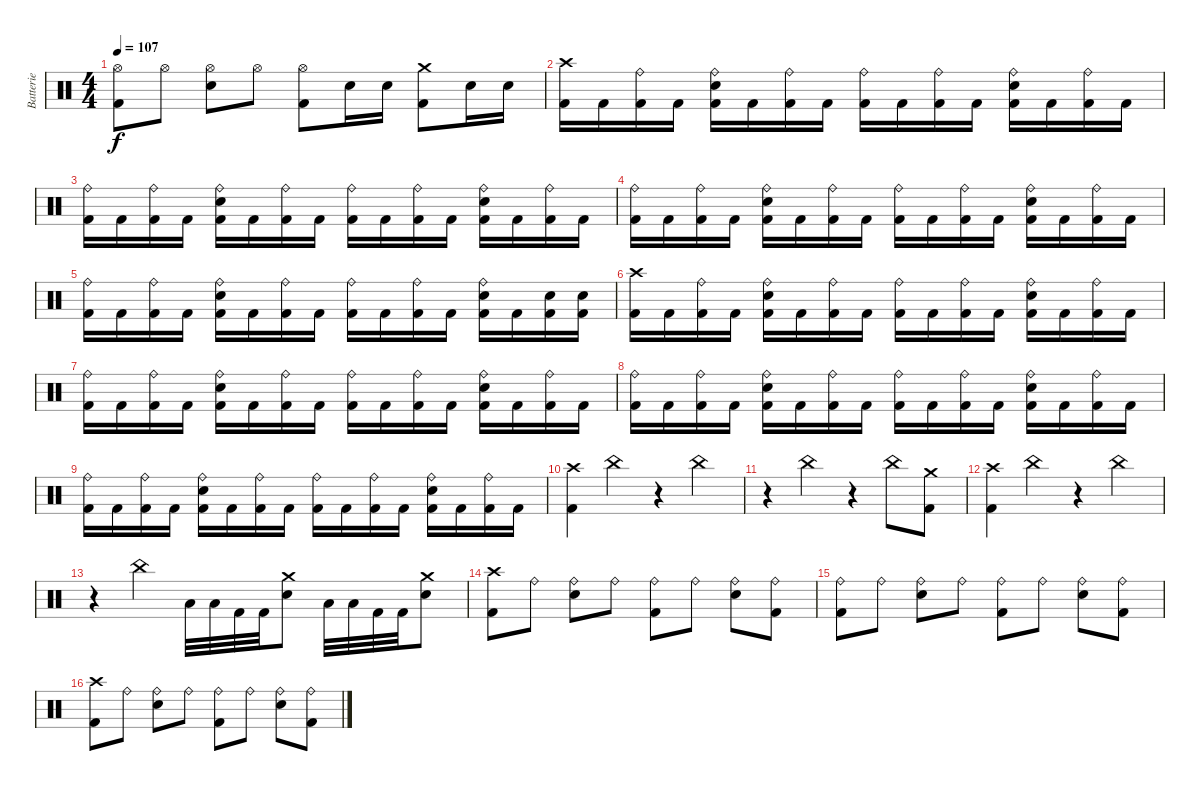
\track ("Batterie" "Batterie") {instrument percussion}
\staff {score}
\articulation defaults
\ts (4 4)
\tempo 107
\clef neutral
\ks c
("Hi-Hat (open)" "Kick (hit) 2").8{dy f} "Hi-Hat (open)".8 ("Hi-Hat (open)" "Electric Snare (hit)").8 "Hi-Hat (open)".8 ("Hi-Hat (open)" "Kick (hit) 2").8 "Electric Snare (hit)".16 "Electric Snare (hit)".16 ("Crash medium (hit)" "Kick (hit) 2").8 "Electric Snare (hit)".16 "Electric Snare (hit)".16 |
("Crash high (hit)" "Kick (hit) 2").16 "Kick (hit) 2".16 ("Ride (bell)" "Kick (hit) 2").16 "Kick (hit) 2".16 ("Ride (bell)" "Electric Snare (hit)" "Kick (hit) 2").16 "Kick (hit) 2".16 ("Ride (bell)" "Kick (hit) 2").16 "Kick (hit) 2".16 ("Ride (bell)" "Kick (hit) 2").16 "Kick (hit) 2".16 ("Ride (bell)" "Kick (hit) 2").16 "Kick (hit) 2".16 ("Ride (bell)" "Electric Snare (hit)" "Kick (hit) 2").16 "Kick (hit) 2".16 ("Ride (bell)" "Kick (hit) 2").16 "Kick (hit) 2".16 |
("Ride (bell)" "Kick (hit) 2").16 "Kick (hit) 2".16 ("Ride (bell)" "Kick (hit) 2").16 "Kick (hit) 2".16 ("Ride (bell)" "Electric Snare (hit)" "Kick (hit) 2").16 "Kick (hit) 2".16 ("Ride (bell)" "Kick (hit) 2").16 "Kick (hit) 2".16 ("Ride (bell)" "Kick (hit) 2").16 "Kick (hit) 2".16 ("Ride (bell)" "Kick (hit) 2").16 "Kick (hit) 2".16 ("Ride (bell)" "Electric Snare (hit)" "Kick (hit) 2").16 "Kick (hit) 2".16 ("Ride (bell)" "Kick (hit) 2").16 "Kick (hit) 2".16 |
("Ride (bell)" "Kick (hit) 2").16 "Kick (hit) 2".16 ("Ride (bell)" "Kick (hit) 2").16 "Kick (hit) 2".16 ("Ride (bell)" "Electric Snare (hit)" "Kick (hit) 2").16 "Kick (hit) 2".16 ("Ride (bell)" "Kick (hit) 2").16 "Kick (hit) 2".16 ("Ride (bell)" "Kick (hit) 2").16 "Kick (hit) 2".16 ("Ride (bell)" "Kick (hit) 2").16 "Kick (hit) 2".16 ("Ride (bell)" "Electric Snare (hit)" "Kick (hit) 2").16 "Kick (hit) 2".16 ("Ride (bell)" "Kick (hit) 2").16 "Kick (hit) 2".16 |
("Ride (bell)" "Kick (hit) 2").16 "Kick (hit) 2".16 ("Ride (bell)" "Kick (hit) 2").16 "Kick (hit) 2".16 ("Ride (bell)" "Electric Snare (hit)" "Kick (hit) 2").16 "Kick (hit) 2".16 ("Ride (bell)" "Kick (hit) 2").16 "Kick (hit) 2".16 ("Ride (bell)" "Kick (hit) 2").16 "Kick (hit) 2".16 ("Ride (bell)" "Kick (hit) 2").16 "Kick (hit) 2".16 ("Ride (bell)" "Electric Snare (hit)" "Kick (hit) 2").16 "Kick (hit) 2".16 ("Electric Snare (hit)" "Kick (hit) 2").16 ("Electric Snare (hit)" "Kick (hit) 2").16 |
("Crash high (hit)" "Kick (hit) 2").16 "Kick (hit) 2".16 ("Ride (bell)" "Kick (hit) 2").16 "Kick (hit) 2".16 ("Ride (bell)" "Electric Snare (hit)" "Kick (hit) 2").16 "Kick (hit) 2".16 ("Ride (bell)" "Kick (hit) 2").16 "Kick (hit) 2".16 ("Ride (bell)" "Kick (hit) 2").16 "Kick (hit) 2".16 ("Ride (bell)" "Kick (hit) 2").16 "Kick (hit) 2".16 ("Ride (bell)" "Electric Snare (hit)" "Kick (hit) 2").16 "Kick (hit) 2".16 ("Ride (bell)" "Kick (hit) 2").16 "Kick (hit) 2".16 |
("Ride (bell)" "Kick (hit) 2").16 "Kick (hit) 2".16 ("Ride (bell)" "Kick (hit) 2").16 "Kick (hit) 2".16 ("Ride (bell)" "Electric Snare (hit)" "Kick (hit) 2").16 "Kick (hit) 2".16 ("Ride (bell)" "Kick (hit) 2").16 "Kick (hit) 2".16 ("Ride (bell)" "Kick (hit) 2").16 "Kick (hit) 2".16 ("Ride (bell)" "Kick (hit) 2").16 "Kick (hit) 2".16 ("Ride (bell)" "Electric Snare (hit)" "Kick (hit) 2").16 "Kick (hit) 2".16 ("Ride (bell)" "Kick (hit) 2").16 "Kick (hit) 2".16 |
("Ride (bell)" "Kick (hit) 2").16 "Kick (hit) 2".16 ("Ride (bell)" "Kick (hit) 2").16 "Kick (hit) 2".16 ("Ride (bell)" "Electric Snare (hit)" "Kick (hit) 2").16 "Kick (hit) 2".16 ("Ride (bell)" "Kick (hit) 2").16 "Kick (hit) 2".16 ("Ride (bell)" "Kick (hit) 2").16 "Kick (hit) 2".16 ("Ride (bell)" "Kick (hit) 2").16 "Kick (hit) 2".16 ("Ride (bell)" "Electric Snare (hit)" "Kick (hit) 2").16 "Kick (hit) 2".16 ("Ride (bell)" "Kick (hit) 2").16 "Kick (hit) 2".16 |
("Ride (bell)" "Kick (hit) 2").16 "Kick (hit) 2".16 ("Ride (bell)" "Kick (hit) 2").16 "Kick (hit) 2".16 ("Ride (bell)" "Electric Snare (hit)" "Kick (hit) 2").16 "Kick (hit) 2".16 ("Ride (bell)" "Kick (hit) 2").16 "Kick (hit) 2".16 ("Ride (bell)" "Kick (hit) 2").16 "Kick (hit) 2".16 ("Ride (bell)" "Kick (hit) 2").16 "Kick (hit) 2".16 ("Ride (bell)" "Electric Snare (hit)" "Kick (hit) 2").16 "Kick (hit) 2".16 ("Ride (bell)" "Kick (hit) 2").16 "Kick (hit) 2".16 |
("Crash high (hit)" "Kick (hit) 2").4 "China (hit)".4 r.4 "China (hit)".4 |
r.4 "China (hit)".4 r.4 "China (hit)".8 ("Crash medium (hit)" "Kick (hit) 2").8 |
("Crash high (hit)" "Kick (hit) 2").4 "China (hit)".4 r.4 "China (hit)".4 |
r.4 "China (hit)".4 "Low Tom (hit)".32 "Low Tom (hit)".32 "Kick (hit) 2".32 "Kick (hit) 2".32 ("Crash medium (hit)" "Electric Snare (hit)").8 "Low Tom (hit)".32 "Low Tom (hit)".32 "Kick (hit) 2".32 "Kick (hit) 2".32 ("Crash medium (hit)" "Electric Snare (hit)").8 |
("Crash high (hit)" "Kick (hit) 2").8 "Ride (bell)".8 ("Ride (bell)" "Electric Snare (hit)").8 "Ride (bell)".8 ("Ride (bell)" "Kick (hit) 2").8 "Ride (bell)".8 ("Ride (bell)" "Electric Snare (hit)").8 ("Ride (bell)" "Kick (hit) 2").8 |
("Ride (bell)" "Kick (hit) 2").8 "Ride (bell)".8 ("Ride (bell)" "Electric Snare (hit)").8 "Ride (bell)".8 ("Ride (bell)" "Kick (hit) 2").8 "Ride (bell)".8 ("Ride (bell)" "Electric Snare (hit)").8 ("Ride (bell)" "Kick (hit) 2").8 |
("Crash high (hit)" "Kick (hit) 2").8 "Ride (bell)".8 ("Ride (bell)" "Electric Snare (hit)").8 "Ride (bell)".8 ("Ride (bell)" "Kick (hit) 2").8 "Ride (bell)".8 ("Ride (bell)" "Electric Snare (hit)").8 ("Ride (bell)" "Kick (hit) 2").8
